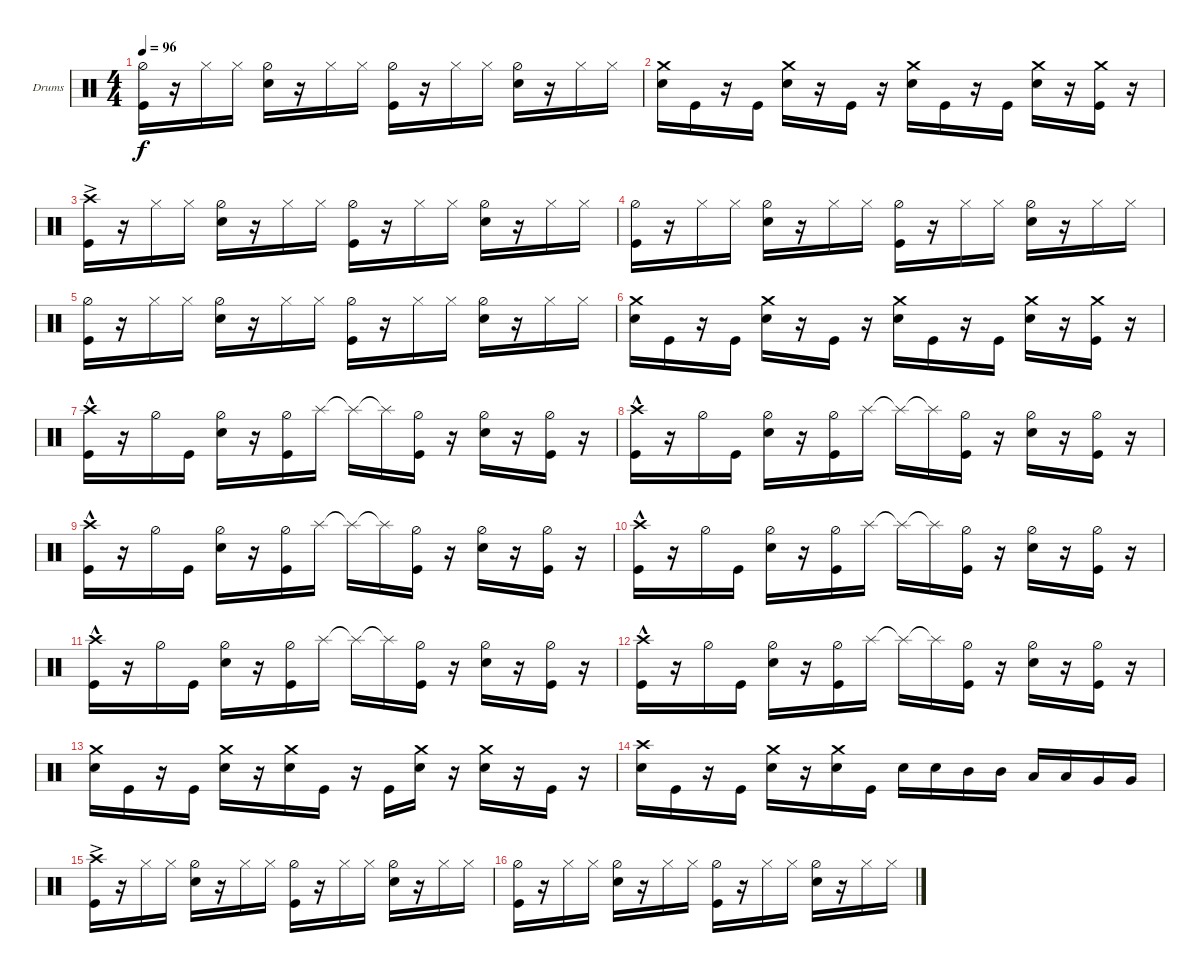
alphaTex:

\defaultSystemsLayout 4
\bracketExtendMode groupsimilarinstruments
\firstSystemTrackNameOrientation horizontal
\otherSystemsTrackNameOrientation horizontal
\track ("Stefan Schwarzmann" "Drums") {instrument percussion}
\staff {score}
\articulation defaults
\ts (4 4)
\tempo 96
\clef neutral
\ks c
("Kick (hit)" "Hi-Hat (half)").16{dy f} r.16 "Hi-Hat (closed)".16 "Hi-Hat (closed)".16 ("Snare (hit) 2" "Hi-Hat (half)").16 r.16 "Hi-Hat (closed)".16 "Hi-Hat (closed)".16 ("Kick (hit)" "Hi-Hat (half)").16 r.16 "Hi-Hat (closed)".16 "Hi-Hat (closed)".16 ("Snare (hit) 2" "Hi-Hat (half)").16 r.16 "Hi-Hat (closed)".16 "Hi-Hat (closed)".16 |
("Snare (hit) 2" "Crash medium (hit)").16 "Kick (hit)".16 r.16 "Kick (hit)".16 ("Snare (hit) 2" "Crash medium (hit)").16 r.16 "Kick (hit)".16 r.16 ("Snare (hit) 2" "Crash medium (hit)").16 "Kick (hit)".16 r.16 "Kick (hit)".16 ("Snare (hit) 2" "Crash medium (hit)").16 r.16 ("Kick (hit)" "Crash medium (hit)").16 r.16 |
("Kick (hit)"{ac} "Crash high (hit)"{ac}).16 r.16 "Hi-Hat (closed)".16 "Hi-Hat (closed)".16 ("Snare (hit) 2" "Hi-Hat (half)").16 r.16 "Hi-Hat (closed)".16 "Hi-Hat (closed)".16 ("Kick (hit)" "Hi-Hat (half)").16 r.16 "Hi-Hat (closed)".16 "Hi-Hat (closed)".16 ("Snare (hit) 2" "Hi-Hat (half)").16 r.16 "Hi-Hat (closed)".16 "Hi-Hat (closed)".16 |
("Kick (hit)" "Hi-Hat (half)").16 r.16 "Hi-Hat (closed)".16 "Hi-Hat (closed)".16 ("Snare (hit) 2" "Hi-Hat (half)").16 r.16 "Hi-Hat (closed)".16 "Hi-Hat (closed)".16 ("Kick (hit)" "Hi-Hat (half)").16 r.16 "Hi-Hat (closed)".16 "Hi-Hat (closed)".16 ("Snare (hit) 2" "Hi-Hat (half)").16 r.16 "Hi-Hat (closed)".16 "Hi-Hat (closed)".16 |
("Kick (hit)" "Hi-Hat (half)").16 r.16 "Hi-Hat (closed)".16 "Hi-Hat (closed)".16 ("Snare (hit) 2" "Hi-Hat (half)").16 r.16 "Hi-Hat (closed)".16 "Hi-Hat (closed)".16 ("Kick (hit)" "Hi-Hat (half)").16 r.16 "Hi-Hat (closed)".16 "Hi-Hat (closed)".16 ("Snare (hit) 2" "Hi-Hat (half)").16 r.16 "Hi-Hat (closed)".16 "Hi-Hat (closed)".16 |
("Snare (hit) 2" "Crash medium (hit)").16 "Kick (hit)".16 r.16 "Kick (hit)".16 ("Snare (hit) 2" "Crash medium (hit)").16 r.16 "Kick (hit)".16 r.16 ("Snare (hit) 2" "Crash medium (hit)").16 "Kick (hit)".16 r.16 "Kick (hit)".16 ("Snare (hit) 2" "Crash medium (hit)").16 r.16 ("Kick (hit)" "Crash medium (hit)").16 r.16 |
("Kick (hit)"{hac} "Crash high (hit)"{hac}).16 r.16 "Hi-Hat (half)".16 "Kick (hit)".16 ("Hi-Hat (half)" "Snare (hit) 2").16 r.16 ("Hi-Hat (half)" "Kick (hit)").16 "Splash (hit)".16 "Splash (hit)"{t}.16 "Splash (hit)"{t}.16 ("Hi-Hat (half)" "Kick (hit)").16 r.16 ("Hi-Hat (half)" "Snare (hit) 2").16 r.16 ("Hi-Hat (half)" "Kick (hit)").16 r.16 |
("Kick (hit)"{hac} "Crash high (hit)"{hac}).16 r.16 "Hi-Hat (half)".16 "Kick (hit)".16 ("Hi-Hat (half)" "Snare (hit) 2").16 r.16 ("Hi-Hat (half)" "Kick (hit)").16 "Splash (hit)".16 "Splash (hit)"{t}.16 "Splash (hit)"{t}.16 ("Hi-Hat (half)" "Kick (hit)").16 r.16 ("Hi-Hat (half)" "Snare (hit) 2").16 r.16 ("Hi-Hat (half)" "Kick (hit)").16 r.16 |
("Kick (hit)"{hac} "Crash high (hit)"{hac}).16 r.16 "Hi-Hat (half)".16 "Kick (hit)".16 ("Hi-Hat (half)" "Snare (hit) 2").16 r.16 ("Hi-Hat (half)" "Kick (hit)").16 "Splash (hit)".16 "Splash (hit)"{t}.16 "Splash (hit)"{t}.16 ("Hi-Hat (half)" "Kick (hit)").16 r.16 ("Hi-Hat (half)" "Snare (hit) 2").16 r.16 ("Hi-Hat (half)" "Kick (hit)").16 r.16 |
("Kick (hit)"{hac} "Crash high (hit)"{hac}).16 r.16 "Hi-Hat (half)".16 "Kick (hit)".16 ("Hi-Hat (half)" "Snare (hit) 2").16 r.16 ("Hi-Hat (half)" "Kick (hit)").16 "Splash (hit)".16 "Splash (hit)"{t}.16 "Splash (hit)"{t}.16 ("Hi-Hat (half)" "Kick (hit)").16 r.16 ("Hi-Hat (half)" "Snare (hit) 2").16 r.16 ("Hi-Hat (half)" "Kick (hit)").16 r.16 |
("Kick (hit)"{hac} "Crash high (hit)"{hac}).16 r.16 "Hi-Hat (half)".16 "Kick (hit)".16 ("Hi-Hat (half)" "Snare (hit) 2").16 r.16 ("Hi-Hat (half)" "Kick (hit)").16 "Splash (hit)".16 "Splash (hit)"{t}.16 "Splash (hit)"{t}.16 ("Hi-Hat (half)" "Kick (hit)").16 r.16 ("Hi-Hat (half)" "Snare (hit) 2").16 r.16 ("Hi-Hat (half)" "Kick (hit)").16 r.16 |
("Kick (hit)"{hac} "Crash high (hit)"{hac}).16 r.16 "Hi-Hat (half)".16 "Kick (hit)".16 ("Hi-Hat (half)" "Snare (hit) 2").16 r.16 ("Hi-Hat (half)" "Kick (hit)").16 "Splash (hit)".16 "Splash (hit)"{t}.16 "Splash (hit)"{t}.16 ("Hi-Hat (half)" "Kick (hit)").16 r.16 ("Hi-Hat (half)" "Snare (hit) 2").16 r.16 ("Hi-Hat (half)" "Kick (hit)").16 r.16 |
("Snare (hit) 2" "Crash medium (hit)").16 "Kick (hit)".16 r.16 "Kick (hit)".16 ("Snare (hit) 2" "Crash medium (hit)").16 r.16 ("Snare (hit) 2" "Crash medium (hit)").16 "Kick (hit)".16 r.16 "Kick (hit)".16 ("Snare (hit) 2" "Crash medium (hit)").16 r.16 ("Snare (hit) 2" "Crash medium (hit)").16 r.16 "Kick (hit)".16 r.16 |
("Snare (hit) 2" "Crash high (hit)").16 "Kick (hit)".16 r.16 "Kick (hit)".16 ("Snare (hit) 2" "Crash medium (hit)").16 r.16 ("Snare (hit) 2" "Crash medium (hit)").16 "Kick (hit)".16 "Snare (hit) 2".16 "Snare (hit) 2".16 "Mid Tom (hit)".16 "Mid Tom (hit)".16 "Low Tom (hit)".16 "Low Tom (hit)".16 "Very Low Tom (hit)".16 "Very Low Tom (hit)".16 |
("Kick (hit)"{ac} "Crash high (hit)"{ac}).16 r.16 "Hi-Hat (closed)".16 "Hi-Hat (closed)".16 ("Snare (hit) 2" "Hi-Hat (half)").16 r.16 "Hi-Hat (closed)".16 "Hi-Hat (closed)".16 ("Kick (hit)" "Hi-Hat (half)").16 r.16 "Hi-Hat (closed)".16 "Hi-Hat (closed)".16 ("Snare (hit) 2" "Hi-Hat (half)").16 r.16 "Hi-Hat (closed)".16 "Hi-Hat (closed)".16 |
("Kick (hit)" "Hi-Hat (half)").16 r.16 "Hi-Hat (closed)".16 "Hi-Hat (closed)".16 ("Snare (hit) 2" "Hi-Hat (half)").16 r.16 "Hi-Hat (closed)".16 "Hi-Hat (closed)".16 ("Kick (hit)" "Hi-Hat (half)").16 r.16 "Hi-Hat (closed)".16 "Hi-Hat (closed)".16 ("Snare (hit) 2" "Hi-Hat (half)").16 r.16 "Hi-Hat (closed)".16 "Hi-Hat (closed)".16
